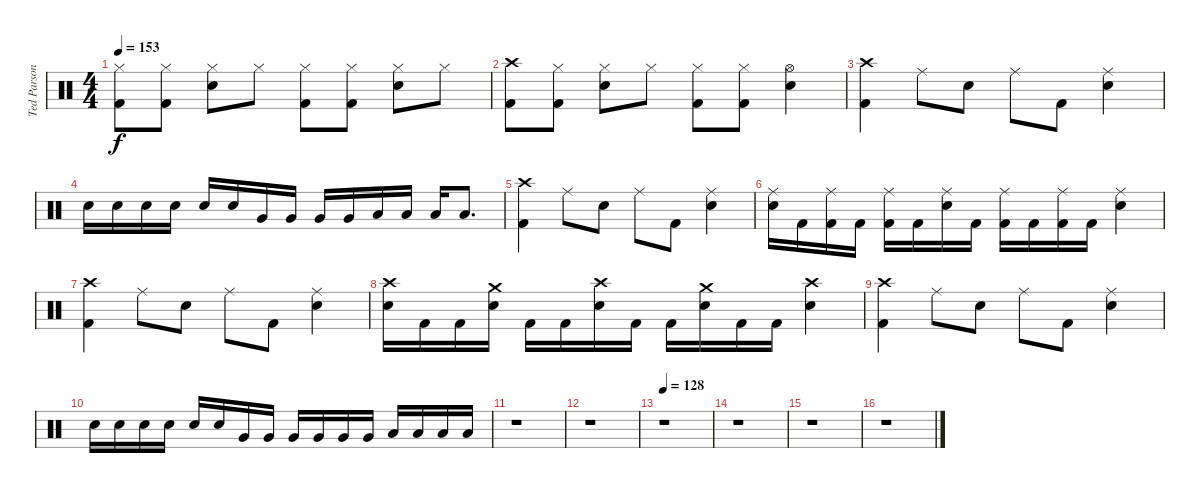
\track ("Ted Parsons" "Ted Parson") {instrument percussion}
\staff {score}
\articulation defaults
\ts (4 4)
\tempo 153
\clef neutral
\ks c
("Hi-Hat (closed)" "Kick (hit) 2").8{dy f} ("Hi-Hat (closed)" "Kick (hit) 2").8 ("Hi-Hat (closed)" "Electric Snare (hit)").8 "Hi-Hat (closed)".8 ("Hi-Hat (closed)" "Kick (hit) 2").8 ("Hi-Hat (closed)" "Kick (hit) 2").8 ("Hi-Hat (closed)" "Electric Snare (hit)").8 "Hi-Hat (closed)".8 |
("Crash high (hit)" "Kick (hit) 2").8 ("Hi-Hat (closed)" "Kick (hit) 2").8 ("Hi-Hat (closed)" "Electric Snare (hit)").8 "Hi-Hat (closed)".8 ("Hi-Hat (closed)" "Kick (hit) 2").8 ("Hi-Hat (closed)" "Kick (hit) 2").8 ("Hi-Hat (open)" "Electric Snare (hit)").4 |
("Crash high (hit)" "Kick (hit) 2").4 "Ride (middle)".8 "Electric Snare (hit)".8 "Ride (middle)".8 "Kick (hit) 2".8 ("Ride (middle)" "Electric Snare (hit)").4 |
"Electric Snare (hit)".16 "Electric Snare (hit)".16 "Electric Snare (hit)".16 "Electric Snare (hit)".16 "Electric Snare (hit)".16 "Electric Snare (hit)".16 "Very Low Tom (hit)".16 "Very Low Tom (hit)".16 "Very Low Tom (hit)".16 "Very Low Tom (hit)".16 "Low Floor Tom (hit)".16 "Low Floor Tom (hit)".16 "Low Floor Tom (hit)".16 "Low Floor Tom (hit)".8{d} |
("Crash high (hit)" "Kick (hit) 2").4 "Ride (middle)".8 "Electric Snare (hit)".8 "Ride (middle)".8 "Kick (hit) 2".8 ("Ride (middle)" "Electric Snare (hit)").4 |
("Ride (middle)" "Electric Snare (hit)").16 "Kick (hit) 2".16 ("Ride (middle)" "Kick (hit) 2").16 "Kick (hit) 2".16 ("Ride (middle)" "Kick (hit) 2").16 "Kick (hit) 2".16 ("Ride (middle)" "Electric Snare (hit)").16 "Kick (hit) 2".16 ("Ride (middle)" "Kick (hit) 2").16 "Kick (hit) 2".16 ("Ride (middle)" "Kick (hit) 2").16 "Kick (hit) 2".16 ("Ride (middle)" "Electric Snare (hit)").4 |
("Crash high (hit)" "Kick (hit) 2").4 "Ride (middle)".8 "Electric Snare (hit)".8 "Ride (middle)".8 "Kick (hit) 2".8 ("Ride (middle)" "Electric Snare (hit)").4 |
("Crash high (hit)" "Electric Snare (hit)").16 "Kick (hit) 2".16 "Kick (hit) 2".16 ("Crash medium (hit)" "Electric Snare (hit)").16 "Kick (hit) 2".16 "Kick (hit) 2".16 ("Crash high (hit)" "Electric Snare (hit)").16 "Kick (hit) 2".16 "Kick (hit) 2".16 ("Crash medium (hit)" "Electric Snare (hit)").16 "Kick (hit) 2".16 "Kick (hit) 2".16 ("Crash high (hit)" "Electric Snare (hit)").4 |
("Crash high (hit)" "Kick (hit) 2").4 "Ride (middle)".8 "Electric Snare (hit)".8 "Ride (middle)".8 "Kick (hit) 2".8 ("Ride (middle)" "Electric Snare (hit)").4 |
"Electric Snare (hit)".16 "Electric Snare (hit)".16 "Electric Snare (hit)".16 "Electric Snare (hit)".16 "Electric Snare (hit)".16 "Electric Snare (hit)".16 "Very Low Tom (hit)".16 "Very Low Tom (hit)".16 "Very Low Tom (hit)".16 "Very Low Tom (hit)".16 "Very Low Tom (hit)".16 "Very Low Tom (hit)".16 "Low Floor Tom (hit)".16 "Low Floor Tom (hit)".16 "Low Floor Tom (hit)".16 "Low Floor Tom (hit)".16 |
r.1 |
r.1 |
\tempo 128
r.1 |
r.1 |
r.1 |
r.1
